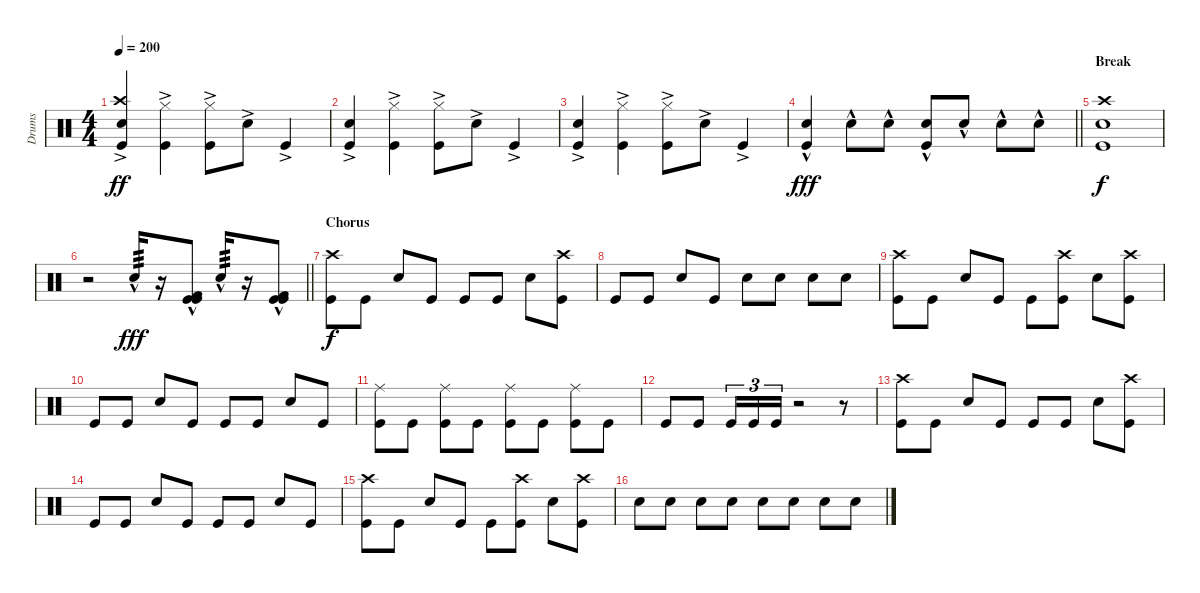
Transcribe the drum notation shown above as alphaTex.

\track ("Drums" "Drums") {instrument percussion}
\staff {score}
\articulation defaults
\ts (4 4)
\tempo 200
\clef neutral
\ks c
("Kick (hit)"{ac} "Crash high (hit)"{ac} "Snare (hit) 2"{ac}).4{dy ff} ("Hi-Hat (closed)"{ac} "Kick (hit)"{ac}).4 ("Hi-Hat (closed)"{ac} "Kick (hit)"{ac}).8 "Snare (hit) 2"{ac}.8 "Kick (hit)"{ac}.4 |
("Kick (hit)"{ac} "Snare (hit) 2"{ac}).4 ("Hi-Hat (closed)"{ac} "Kick (hit)"{ac}).4 ("Hi-Hat (closed)"{ac} "Kick (hit)"{ac}).8 "Snare (hit) 2"{ac}.8 "Kick (hit)"{ac}.4 |
("Kick (hit)"{ac} "Snare (hit) 2"{ac}).4 ("Hi-Hat (closed)"{ac} "Kick (hit)"{ac}).4 ("Hi-Hat (closed)"{ac} "Kick (hit)"{ac}).8 "Snare (hit) 2"{ac}.8 "Kick (hit)"{ac}.4 |
\barLineRight lightlight
("Kick (hit)"{hac} "Snare (hit) 2"{hac}).4{dy fff} "Snare (hit) 2"{hac}.8 "Snare (hit) 2"{hac}.8 ("Snare (hit) 2"{hac} "Kick (hit)"{hac}).8 "Snare (hit) 2"{hac}.8 "Snare (hit) 2"{hac}.8 "Snare (hit) 2"{hac}.8 |
\section ("" "Break")
("Crash high (hit)" "Snare (hit) 2" "Kick (hit)").1{dy f} |
\barLineRight lightlight
r.2 "Snare (hit) 2"{hac}.16{tp 3 dy fff} r.16 ("Kick (hit) 2"{hac} "Kick (hit)"{hac} "Kick (hit)"{hac}).8 "Snare (hit) 2"{hac}.16{tp 3} r.16 ("Kick (hit) 2"{hac} "Kick (hit)"{hac} "Kick (hit)"{hac}).8 |
\section ("" "Chorus")
("Crash high (hit)" "Kick (hit)").8{dy f} "Kick (hit)".8 "Snare (hit) 2".8 "Kick (hit)".8 "Kick (hit)".8 "Kick (hit)".8 "Snare (hit) 2".8 ("Crash high (hit)" "Kick (hit)").8 |
"Kick (hit)".8 "Kick (hit)".8 "Snare (hit) 2".8 "Kick (hit)".8 "Snare (hit) 2".8 "Snare (hit) 2".8 "Snare (hit) 2".8 "Snare (hit) 2".8 |
("Crash high (hit)" "Kick (hit)").8 "Kick (hit)".8 "Snare (hit) 2".8 "Kick (hit)".8 "Kick (hit)".8 ("Crash high (hit)" "Kick (hit)").8 "Snare (hit) 2".8 ("Crash high (hit)" "Kick (hit)").8 |
"Kick (hit)".8 "Kick (hit)".8 "Snare (hit) 2".8 "Kick (hit)".8 "Kick (hit)".8 "Kick (hit)".8 "Snare (hit) 2".8 "Kick (hit)".8 |
("Ride (middle)" "Kick (hit)").8 "Kick (hit)".8 ("Ride (middle)" "Kick (hit)").8 "Kick (hit)".8 ("Ride (middle)" "Kick (hit)").8 "Kick (hit)".8 ("Ride (middle)" "Kick (hit)").8 "Kick (hit)".8 |
"Kick (hit)".8 "Kick (hit)".8 "Kick (hit)".16{tu (3 2)} "Kick (hit)".16{tu (3 2)} "Kick (hit)".16{tu (3 2)} r.2 r.8 |
("Crash high (hit)" "Kick (hit)").8 "Kick (hit)".8 "Snare (hit) 2".8 "Kick (hit)".8 "Kick (hit)".8 "Kick (hit)".8 "Snare (hit) 2".8 ("Crash high (hit)" "Kick (hit)").8 |
"Kick (hit)".8 "Kick (hit)".8 "Snare (hit) 2".8 "Kick (hit)".8 "Kick (hit)".8 "Kick (hit)".8 "Snare (hit) 2".8 "Kick (hit)".8 |
("Crash high (hit)" "Kick (hit)").8 "Kick (hit)".8 "Snare (hit) 2".8 "Kick (hit)".8 "Kick (hit)".8 ("Crash high (hit)" "Kick (hit)").8 "Snare (hit) 2".8 ("Crash high (hit)" "Kick (hit)").8 |
"Snare (hit) 2".8 "Snare (hit) 2".8 "Snare (hit) 2".8 "Snare (hit) 2".8 "Snare (hit) 2".8 "Snare (hit) 2".8 "Snare (hit) 2".8 "Snare (hit) 2".8
